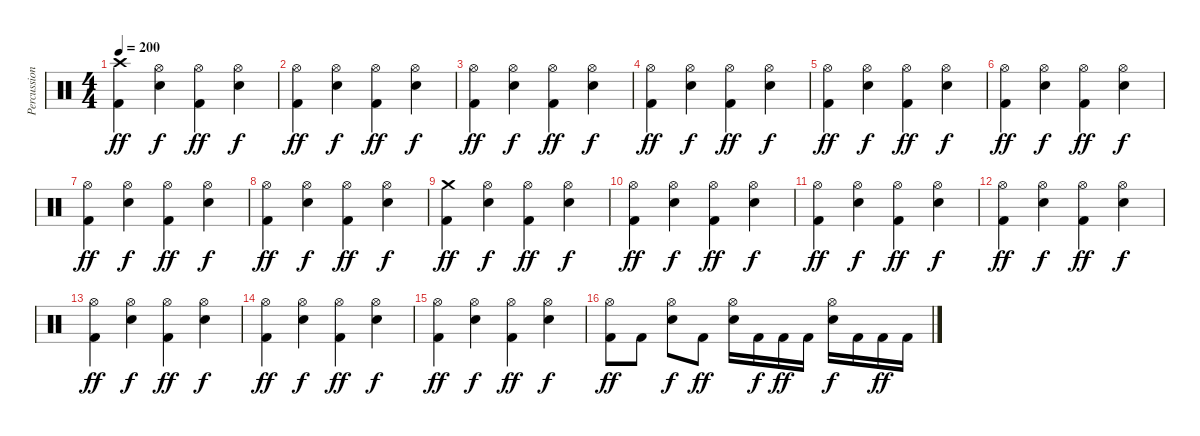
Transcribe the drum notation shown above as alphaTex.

\track ("Percussion" "Percussion") {instrument percussion}
\staff {score}
\articulation defaults
\ts (4 4)
\tempo 200
\clef neutral
\ks c
("Crash high (hit)" "Kick (hit) 2").4{dy ff} ("Hi-Hat (open)" "Snare (hit) 2").4{dy f} ("Hi-Hat (open)" "Kick (hit) 2").4{dy ff} ("Hi-Hat (open)" "Snare (hit) 2").4{dy f} |
("Hi-Hat (open)" "Kick (hit) 2").4{dy ff} ("Hi-Hat (open)" "Snare (hit) 2").4{dy f} ("Hi-Hat (open)" "Kick (hit) 2").4{dy ff} ("Hi-Hat (open)" "Snare (hit) 2").4{dy f} |
("Hi-Hat (open)" "Kick (hit) 2").4{dy ff} ("Hi-Hat (open)" "Snare (hit) 2").4{dy f} ("Hi-Hat (open)" "Kick (hit) 2").4{dy ff} ("Hi-Hat (open)" "Snare (hit) 2").4{dy f} |
("Hi-Hat (open)" "Kick (hit) 2").4{dy ff} ("Hi-Hat (open)" "Snare (hit) 2").4{dy f} ("Hi-Hat (open)" "Kick (hit) 2").4{dy ff} ("Hi-Hat (open)" "Snare (hit) 2").4{dy f} |
("Hi-Hat (open)" "Kick (hit) 2").4{dy ff} ("Hi-Hat (open)" "Snare (hit) 2").4{dy f} ("Hi-Hat (open)" "Kick (hit) 2").4{dy ff} ("Hi-Hat (open)" "Snare (hit) 2").4{dy f} |
("Hi-Hat (open)" "Kick (hit) 2").4{dy ff} ("Hi-Hat (open)" "Snare (hit) 2").4{dy f} ("Hi-Hat (open)" "Kick (hit) 2").4{dy ff} ("Hi-Hat (open)" "Snare (hit) 2").4{dy f} |
("Hi-Hat (open)" "Kick (hit) 2").4{dy ff} ("Hi-Hat (open)" "Snare (hit) 2").4{dy f} ("Hi-Hat (open)" "Kick (hit) 2").4{dy ff} ("Hi-Hat (open)" "Snare (hit) 2").4{dy f} |
("Hi-Hat (open)" "Kick (hit) 2").4{dy ff} ("Hi-Hat (open)" "Snare (hit) 2").4{dy f} ("Hi-Hat (open)" "Kick (hit) 2").4{dy ff} ("Hi-Hat (open)" "Snare (hit) 2").4{dy f} |
("Crash medium (hit)" "Kick (hit) 2").4{dy ff} ("Hi-Hat (open)" "Snare (hit) 2").4{dy f} ("Hi-Hat (open)" "Kick (hit) 2").4{dy ff} ("Hi-Hat (open)" "Snare (hit) 2").4{dy f} |
("Hi-Hat (open)" "Kick (hit) 2").4{dy ff} ("Hi-Hat (open)" "Snare (hit) 2").4{dy f} ("Hi-Hat (open)" "Kick (hit) 2").4{dy ff} ("Hi-Hat (open)" "Snare (hit) 2").4{dy f} |
("Hi-Hat (open)" "Kick (hit) 2").4{dy ff} ("Hi-Hat (open)" "Snare (hit) 2").4{dy f} ("Hi-Hat (open)" "Kick (hit) 2").4{dy ff} ("Hi-Hat (open)" "Snare (hit) 2").4{dy f} |
("Hi-Hat (open)" "Kick (hit) 2").4{dy ff} ("Hi-Hat (open)" "Snare (hit) 2").4{dy f} ("Hi-Hat (open)" "Kick (hit) 2").4{dy ff} ("Hi-Hat (open)" "Snare (hit) 2").4{dy f} |
("Hi-Hat (open)" "Kick (hit) 2").4{dy ff} ("Hi-Hat (open)" "Snare (hit) 2").4{dy f} ("Hi-Hat (open)" "Kick (hit) 2").4{dy ff} ("Hi-Hat (open)" "Snare (hit) 2").4{dy f} |
("Hi-Hat (open)" "Kick (hit) 2").4{dy ff} ("Hi-Hat (open)" "Snare (hit) 2").4{dy f} ("Hi-Hat (open)" "Kick (hit) 2").4{dy ff} ("Hi-Hat (open)" "Snare (hit) 2").4{dy f} |
("Hi-Hat (open)" "Kick (hit) 2").4{dy ff} ("Hi-Hat (open)" "Snare (hit) 2").4{dy f} ("Hi-Hat (open)" "Kick (hit) 2").4{dy ff} ("Hi-Hat (open)" "Snare (hit) 2").4{dy f} |
("Hi-Hat (open)" "Kick (hit) 2").8{dy ff} "Kick (hit) 2".8 ("Hi-Hat (open)" "Snare (hit) 2").8{dy f} "Kick (hit) 2".8{dy ff} ("Hi-Hat (open)" "Snare (hit) 2").16 "Kick (hit) 2".16{dy f} "Kick (hit) 2".16{dy ff} "Kick (hit) 2".16 ("Hi-Hat (open)" "Snare (hit) 2").16{dy f} "Kick (hit) 2".16 "Kick (hit) 2".16{dy ff} "Kick (hit) 2".16
